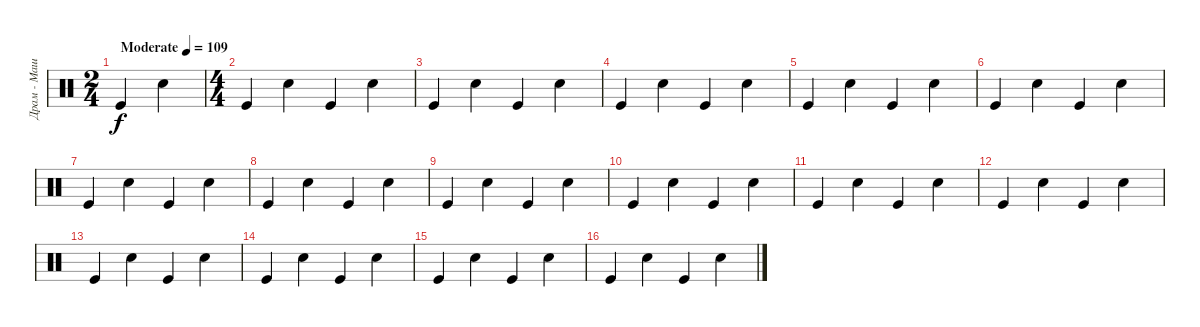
\track ("Драм - Машина" "Драм - Маш") {instrument percussion}
\staff {score}
\articulation defaults
\ts (2 4)
\tempo (109 "Moderate")
\clef neutral
\ks c "Kick (hit)".4{dy f} "Snare (hit) 2".4
|
\ts (4 4)
"Kick (hit)".4 "Snare (hit) 2".4 "Kick (hit)".4 "Snare (hit) 2".4 |
"Kick (hit)".4 "Snare (hit) 2".4 "Kick (hit)".4 "Snare (hit) 2".4 |
"Kick (hit)".4 "Snare (hit) 2".4 "Kick (hit)".4 "Snare (hit) 2".4 |
"Kick (hit)".4 "Snare (hit) 2".4 "Kick (hit)".4 "Snare (hit) 2".4 |
"Kick (hit)".4 "Snare (hit) 2".4 "Kick (hit)".4 "Snare (hit) 2".4 |
"Kick (hit)".4 "Snare (hit) 2".4 "Kick (hit)".4 "Snare (hit) 2".4 |
"Kick (hit)".4 "Snare (hit) 2".4 "Kick (hit)".4 "Snare (hit) 2".4 |
"Kick (hit)".4 "Snare (hit) 2".4 "Kick (hit)".4 "Snare (hit) 2".4 |
"Kick (hit)".4 "Snare (hit) 2".4 "Kick (hit)".4 "Snare (hit) 2".4 |
"Kick (hit)".4 "Snare (hit) 2".4 "Kick (hit)".4 "Snare (hit) 2".4 |
"Kick (hit)".4 "Snare (hit) 2".4 "Kick (hit)".4 "Snare (hit) 2".4 |
"Kick (hit)".4 "Snare (hit) 2".4 "Kick (hit)".4 "Snare (hit) 2".4 |
"Kick (hit)".4 "Snare (hit) 2".4 "Kick (hit)".4 "Snare (hit) 2".4 |
"Kick (hit)".4 "Snare (hit) 2".4 "Kick (hit)".4 "Snare (hit) 2".4 |
"Kick (hit)".4 "Snare (hit) 2".4 "Kick (hit)".4 "Snare (hit) 2".4
